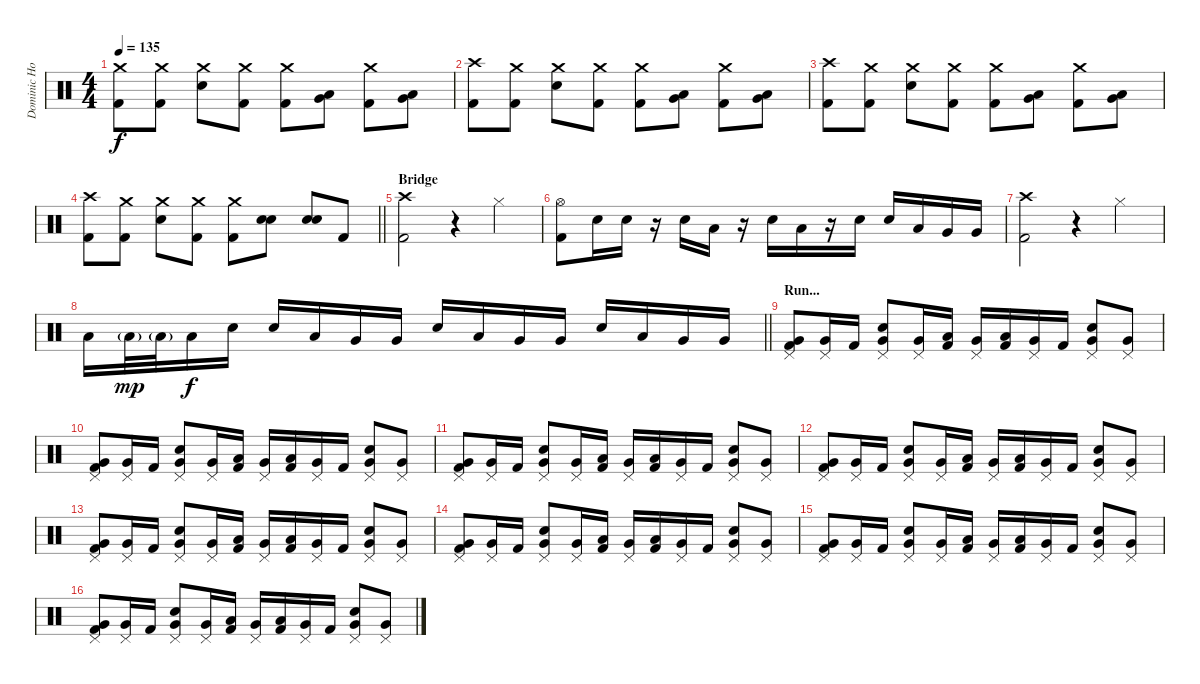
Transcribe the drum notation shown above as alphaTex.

\track ("Dominic Howard (Drums)" "Dominic Ho") {instrument percussion}
\staff {score}
\articulation defaults
\ts (4 4)
\tempo 135
\clef neutral
\ks c
("Crash medium (hit)" "Kick (hit) 2").8{dy f} ("Crash medium (hit)" "Kick (hit) 2").8 ("Crash medium (hit)" "Electric Snare (hit)").8 ("Crash medium (hit)" "Kick (hit) 2").8 ("Crash medium (hit)" "Kick (hit) 2").8 ("Very Low Tom (hit)" "Low Tom (hit)").8 ("Crash medium (hit)" "Kick (hit) 2").8 ("Very Low Tom (hit)" "Low Tom (hit)").8 |
("Crash high (hit)" "Kick (hit) 2").8 ("Crash medium (hit)" "Kick (hit) 2").8 ("Crash medium (hit)" "Electric Snare (hit)").8 ("Crash medium (hit)" "Kick (hit) 2").8 ("Crash medium (hit)" "Kick (hit) 2").8 ("Very Low Tom (hit)" "Low Tom (hit)").8 ("Crash medium (hit)" "Kick (hit) 2").8 ("Very Low Tom (hit)" "Low Tom (hit)").8 |
("Crash high (hit)" "Kick (hit) 2").8 ("Crash medium (hit)" "Kick (hit) 2").8 ("Crash medium (hit)" "Electric Snare (hit)").8 ("Crash medium (hit)" "Kick (hit) 2").8 ("Crash medium (hit)" "Kick (hit) 2").8 ("Very Low Tom (hit)" "Low Tom (hit)").8 ("Crash medium (hit)" "Kick (hit) 2").8 ("Very Low Tom (hit)" "Low Tom (hit)").8 |
\barLineRight lightlight
("Crash high (hit)" "Kick (hit) 2").8 ("Crash medium (hit)" "Kick (hit) 2").8 ("Crash medium (hit)" "Electric Snare (hit)").8 ("Crash medium (hit)" "Kick (hit) 2").8 ("Crash medium (hit)" "Kick (hit) 2").8 ("Electric Snare (hit)" "Electric Snare (hit)").8 ("Electric Snare (hit)" "Electric Snare (hit)").8 "Kick (hit) 2".8 |
\section ("" "Bridge")
("Crash high (hit)" "Kick (hit) 2").2 r.4 "Hi-Hat (closed)".4 |
("Hi-Hat (open)" "Kick (hit) 2").8 "Electric Snare (hit)".16 "Electric Snare (hit)".16 r.16 "Electric Snare (hit)".16 "Low Tom (hit)".16 r.16 "Electric Snare (hit)".16 "Low Tom (hit)".16 r.16 "Electric Snare (hit)".16 "Electric Snare (hit)".16 "Low Tom (hit)".16 "Very Low Tom (hit)".16 "Very Low Tom (hit)".16 |
("Crash high (hit)" "Kick (hit) 2").2 r.4 "Hi-Hat (closed)".4 |
\barLineRight lightlight "Low Tom (hit)".16 "Low Tom (hit)"{g}.32{dy mp} "Low Tom (hit)"{g}.32 "Low Tom (hit)".16{dy f} "Electric Snare (hit)".16 "Electric Snare (hit)".16 "Low Tom (hit)".16 "Very Low Tom (hit)".16 "Very Low Tom (hit)".16 "Electric Snare (hit)".16 "Low Tom (hit)".16 "Very Low Tom (hit)".16 "Very Low Tom (hit)".16 "Electric Snare (hit)".16 "Low Tom (hit)".16 "Very Low Tom (hit)".16 "Very Low Tom (hit)".16
|
\section ("" "Run...")
("Kick (hit) 2" "Very Low Tom (hit)" "Pedal Hi-Hat (hit)").8 ("Very Low Tom (hit)" "Pedal Hi-Hat (hit)").16 "Kick (hit) 2".16 ("Electric Snare (hit)" "Very Low Tom (hit)" "Pedal Hi-Hat (hit)").8 ("Very Low Tom (hit)" "Pedal Hi-Hat (hit)").16 ("Kick (hit) 2" "Low Tom (hit)").16 ("Very Low Tom (hit)" "Pedal Hi-Hat (hit)").16 ("Kick (hit) 2" "Low Tom (hit)").16 ("Very Low Tom (hit)" "Pedal Hi-Hat (hit)").16 "Kick (hit) 2".16 ("Electric Snare (hit)" "Very Low Tom (hit)" "Pedal Hi-Hat (hit)").8 ("Very Low Tom (hit)" "Pedal Hi-Hat (hit)").8 |
("Kick (hit) 2" "Very Low Tom (hit)" "Pedal Hi-Hat (hit)").8 ("Very Low Tom (hit)" "Pedal Hi-Hat (hit)").16 "Kick (hit) 2".16 ("Electric Snare (hit)" "Very Low Tom (hit)" "Pedal Hi-Hat (hit)").8 ("Very Low Tom (hit)" "Pedal Hi-Hat (hit)").16 ("Kick (hit) 2" "Low Tom (hit)").16 ("Very Low Tom (hit)" "Pedal Hi-Hat (hit)").16 ("Kick (hit) 2" "Low Tom (hit)").16 ("Very Low Tom (hit)" "Pedal Hi-Hat (hit)").16 "Kick (hit) 2".16 ("Electric Snare (hit)" "Very Low Tom (hit)" "Pedal Hi-Hat (hit)").8 ("Very Low Tom (hit)" "Pedal Hi-Hat (hit)").8 |
("Kick (hit) 2" "Very Low Tom (hit)" "Pedal Hi-Hat (hit)").8 ("Very Low Tom (hit)" "Pedal Hi-Hat (hit)").16 "Kick (hit) 2".16 ("Electric Snare (hit)" "Very Low Tom (hit)" "Pedal Hi-Hat (hit)").8 ("Very Low Tom (hit)" "Pedal Hi-Hat (hit)").16 ("Kick (hit) 2" "Low Tom (hit)").16 ("Very Low Tom (hit)" "Pedal Hi-Hat (hit)").16 ("Kick (hit) 2" "Low Tom (hit)").16 ("Very Low Tom (hit)" "Pedal Hi-Hat (hit)").16 "Kick (hit) 2".16 ("Electric Snare (hit)" "Very Low Tom (hit)" "Pedal Hi-Hat (hit)").8 ("Very Low Tom (hit)" "Pedal Hi-Hat (hit)").8 |
("Kick (hit) 2" "Very Low Tom (hit)" "Pedal Hi-Hat (hit)").8 ("Very Low Tom (hit)" "Pedal Hi-Hat (hit)").16 "Kick (hit) 2".16 ("Electric Snare (hit)" "Very Low Tom (hit)" "Pedal Hi-Hat (hit)").8 ("Very Low Tom (hit)" "Pedal Hi-Hat (hit)").16 ("Kick (hit) 2" "Low Tom (hit)").16 ("Very Low Tom (hit)" "Pedal Hi-Hat (hit)").16 ("Kick (hit) 2" "Low Tom (hit)").16 ("Very Low Tom (hit)" "Pedal Hi-Hat (hit)").16 "Kick (hit) 2".16 ("Electric Snare (hit)" "Very Low Tom (hit)" "Pedal Hi-Hat (hit)").8 ("Very Low Tom (hit)" "Pedal Hi-Hat (hit)").8 |
("Kick (hit) 2" "Very Low Tom (hit)" "Pedal Hi-Hat (hit)").8 ("Very Low Tom (hit)" "Pedal Hi-Hat (hit)").16 "Kick (hit) 2".16 ("Electric Snare (hit)" "Very Low Tom (hit)" "Pedal Hi-Hat (hit)").8 ("Very Low Tom (hit)" "Pedal Hi-Hat (hit)").16 ("Kick (hit) 2" "Low Tom (hit)").16 ("Very Low Tom (hit)" "Pedal Hi-Hat (hit)").16 ("Kick (hit) 2" "Low Tom (hit)").16 ("Very Low Tom (hit)" "Pedal Hi-Hat (hit)").16 "Kick (hit) 2".16 ("Electric Snare (hit)" "Very Low Tom (hit)" "Pedal Hi-Hat (hit)").8 ("Very Low Tom (hit)" "Pedal Hi-Hat (hit)").8 |
("Kick (hit) 2" "Very Low Tom (hit)" "Pedal Hi-Hat (hit)").8 ("Very Low Tom (hit)" "Pedal Hi-Hat (hit)").16 "Kick (hit) 2".16 ("Electric Snare (hit)" "Very Low Tom (hit)" "Pedal Hi-Hat (hit)").8 ("Very Low Tom (hit)" "Pedal Hi-Hat (hit)").16 ("Kick (hit) 2" "Low Tom (hit)").16 ("Very Low Tom (hit)" "Pedal Hi-Hat (hit)").16 ("Kick (hit) 2" "Low Tom (hit)").16 ("Very Low Tom (hit)" "Pedal Hi-Hat (hit)").16 "Kick (hit) 2".16 ("Electric Snare (hit)" "Very Low Tom (hit)" "Pedal Hi-Hat (hit)").8 ("Very Low Tom (hit)" "Pedal Hi-Hat (hit)").8 |
("Kick (hit) 2" "Very Low Tom (hit)" "Pedal Hi-Hat (hit)").8 ("Very Low Tom (hit)" "Pedal Hi-Hat (hit)").16 "Kick (hit) 2".16 ("Electric Snare (hit)" "Very Low Tom (hit)" "Pedal Hi-Hat (hit)").8 ("Very Low Tom (hit)" "Pedal Hi-Hat (hit)").16 ("Kick (hit) 2" "Low Tom (hit)").16 ("Very Low Tom (hit)" "Pedal Hi-Hat (hit)").16 ("Kick (hit) 2" "Low Tom (hit)").16 ("Very Low Tom (hit)" "Pedal Hi-Hat (hit)").16 "Kick (hit) 2".16 ("Electric Snare (hit)" "Very Low Tom (hit)" "Pedal Hi-Hat (hit)").8 ("Very Low Tom (hit)" "Pedal Hi-Hat (hit)").8 |
("Kick (hit) 2" "Very Low Tom (hit)" "Pedal Hi-Hat (hit)").8 ("Very Low Tom (hit)" "Pedal Hi-Hat (hit)").16 "Kick (hit) 2".16 ("Electric Snare (hit)" "Very Low Tom (hit)" "Pedal Hi-Hat (hit)").8 ("Very Low Tom (hit)" "Pedal Hi-Hat (hit)").16 ("Kick (hit) 2" "Low Tom (hit)").16 ("Very Low Tom (hit)" "Pedal Hi-Hat (hit)").16 ("Kick (hit) 2" "Low Tom (hit)").16 ("Very Low Tom (hit)" "Pedal Hi-Hat (hit)").16 "Kick (hit) 2".16 ("Electric Snare (hit)" "Very Low Tom (hit)" "Pedal Hi-Hat (hit)").8 ("Very Low Tom (hit)" "Pedal Hi-Hat (hit)").8
